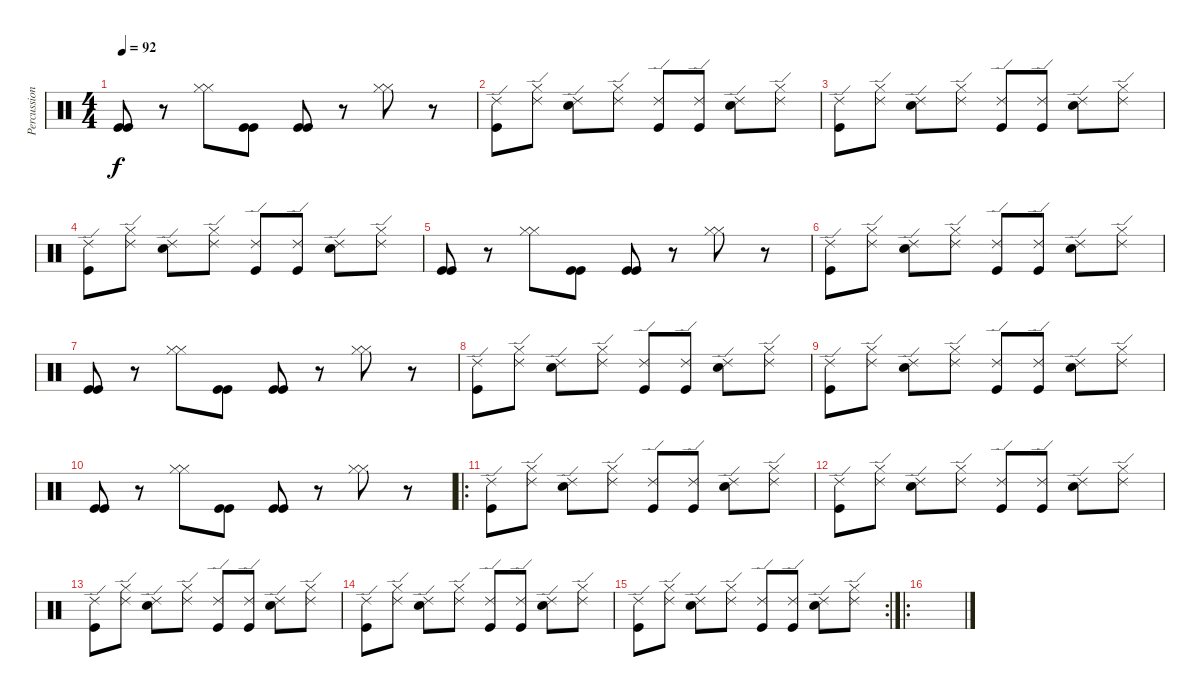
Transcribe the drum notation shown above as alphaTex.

\track ("Percussion" "Percussion") {instrument percussion}
\staff {score}
\articulation defaults
\ts (4 4)
\tempo 92
\clef neutral
\ks c
("Kick (hit)" "Kick (hit)").8{dy f} r.8 ("Hi-Hat (closed)" "Hi-Hat (closed)").8 ("Kick (hit)" "Kick (hit)").8 ("Kick (hit)" "Kick (hit)").8 r.8 ("Hi-Hat (closed)" "Hi-Hat (closed)").8 r.8 |
("Kick (hit)" "Ride (edge) 2").8 ("Hi-Hat (closed)" "Ride (edge) 2").8 ("Snare (hit) 2" "Ride (edge) 2").8 ("Hi-Hat (closed)" "Ride (edge) 2").8 ("Kick (hit)" "Ride (edge) 2").8 ("Kick (hit)" "Ride (edge) 2").8 ("Snare (hit) 2" "Ride (edge) 2").8 ("Hi-Hat (closed)" "Ride (edge) 2").8 |
("Kick (hit)" "Ride (edge) 2").8 ("Hi-Hat (closed)" "Ride (edge) 2").8 ("Snare (hit) 2" "Ride (edge) 2").8 ("Hi-Hat (closed)" "Ride (edge) 2").8 ("Kick (hit)" "Ride (edge) 2").8 ("Kick (hit)" "Ride (edge) 2").8 ("Snare (hit) 2" "Ride (edge) 2").8 ("Hi-Hat (closed)" "Ride (edge) 2").8 |
("Kick (hit)" "Ride (edge) 2").8 ("Hi-Hat (closed)" "Ride (edge) 2").8 ("Snare (hit) 2" "Ride (edge) 2").8 ("Hi-Hat (closed)" "Ride (edge) 2").8 ("Kick (hit)" "Ride (edge) 2").8 ("Kick (hit)" "Ride (edge) 2").8 ("Snare (hit) 2" "Ride (edge) 2").8 ("Hi-Hat (closed)" "Ride (edge) 2").8 |
("Kick (hit)" "Kick (hit)").8 r.8 ("Hi-Hat (closed)" "Hi-Hat (closed)").8 ("Kick (hit)" "Kick (hit)").8 ("Kick (hit)" "Kick (hit)").8 r.8 ("Hi-Hat (closed)" "Hi-Hat (closed)").8 r.8 |
("Kick (hit)" "Ride (edge) 2").8 ("Hi-Hat (closed)" "Ride (edge) 2").8 ("Snare (hit) 2" "Ride (edge) 2").8 ("Hi-Hat (closed)" "Ride (edge) 2").8 ("Kick (hit)" "Ride (edge) 2").8 ("Kick (hit)" "Ride (edge) 2").8 ("Snare (hit) 2" "Ride (edge) 2").8 ("Hi-Hat (closed)" "Ride (edge) 2").8 |
("Kick (hit)" "Kick (hit)").8 r.8 ("Hi-Hat (closed)" "Hi-Hat (closed)").8 ("Kick (hit)" "Kick (hit)").8 ("Kick (hit)" "Kick (hit)").8 r.8 ("Hi-Hat (closed)" "Hi-Hat (closed)").8 r.8 |
("Kick (hit)" "Ride (edge) 2").8 ("Hi-Hat (closed)" "Ride (edge) 2").8 ("Snare (hit) 2" "Ride (edge) 2").8 ("Hi-Hat (closed)" "Ride (edge) 2").8 ("Kick (hit)" "Ride (edge) 2").8 ("Kick (hit)" "Ride (edge) 2").8 ("Snare (hit) 2" "Ride (edge) 2").8 ("Hi-Hat (closed)" "Ride (edge) 2").8 |
("Kick (hit)" "Ride (edge) 2").8 ("Hi-Hat (closed)" "Ride (edge) 2").8 ("Snare (hit) 2" "Ride (edge) 2").8 ("Hi-Hat (closed)" "Ride (edge) 2").8 ("Kick (hit)" "Ride (edge) 2").8 ("Kick (hit)" "Ride (edge) 2").8 ("Snare (hit) 2" "Ride (edge) 2").8 ("Hi-Hat (closed)" "Ride (edge) 2").8 |
("Kick (hit)" "Kick (hit)").8 r.8 ("Hi-Hat (closed)" "Hi-Hat (closed)").8 ("Kick (hit)" "Kick (hit)").8 ("Kick (hit)" "Kick (hit)").8 r.8 ("Hi-Hat (closed)" "Hi-Hat (closed)").8 r.8 |
\ro
("Kick (hit)" "Ride (edge) 2").8 ("Hi-Hat (closed)" "Ride (edge) 2").8 ("Snare (hit) 2" "Ride (edge) 2").8 ("Hi-Hat (closed)" "Ride (edge) 2").8 ("Kick (hit)" "Ride (edge) 2").8 ("Kick (hit)" "Ride (edge) 2").8 ("Snare (hit) 2" "Ride (edge) 2").8 ("Hi-Hat (closed)" "Ride (edge) 2").8 |
("Kick (hit)" "Ride (edge) 2").8 ("Hi-Hat (closed)" "Ride (edge) 2").8 ("Snare (hit) 2" "Ride (edge) 2").8 ("Hi-Hat (closed)" "Ride (edge) 2").8 ("Kick (hit)" "Ride (edge) 2").8 ("Kick (hit)" "Ride (edge) 2").8 ("Snare (hit) 2" "Ride (edge) 2").8 ("Hi-Hat (closed)" "Ride (edge) 2").8 |
("Kick (hit)" "Ride (edge) 2").8 ("Hi-Hat (closed)" "Ride (edge) 2").8 ("Snare (hit) 2" "Ride (edge) 2").8 ("Hi-Hat (closed)" "Ride (edge) 2").8 ("Kick (hit)" "Ride (edge) 2").8 ("Kick (hit)" "Ride (edge) 2").8 ("Snare (hit) 2" "Ride (edge) 2").8 ("Hi-Hat (closed)" "Ride (edge) 2").8 |
("Kick (hit)" "Ride (edge) 2").8 ("Hi-Hat (closed)" "Ride (edge) 2").8 ("Snare (hit) 2" "Ride (edge) 2").8 ("Hi-Hat (closed)" "Ride (edge) 2").8 ("Kick (hit)" "Ride (edge) 2").8 ("Kick (hit)" "Ride (edge) 2").8 ("Snare (hit) 2" "Ride (edge) 2").8 ("Hi-Hat (closed)" "Ride (edge) 2").8 |
\rc 2
("Kick (hit)" "Ride (edge) 2").8 ("Hi-Hat (closed)" "Ride (edge) 2").8 ("Snare (hit) 2" "Ride (edge) 2").8 ("Hi-Hat (closed)" "Ride (edge) 2").8 ("Kick (hit)" "Ride (edge) 2").8 ("Kick (hit)" "Ride (edge) 2").8 ("Snare (hit) 2" "Ride (edge) 2").8 ("Hi-Hat (closed)" "Ride (edge) 2").8 |
\ro
